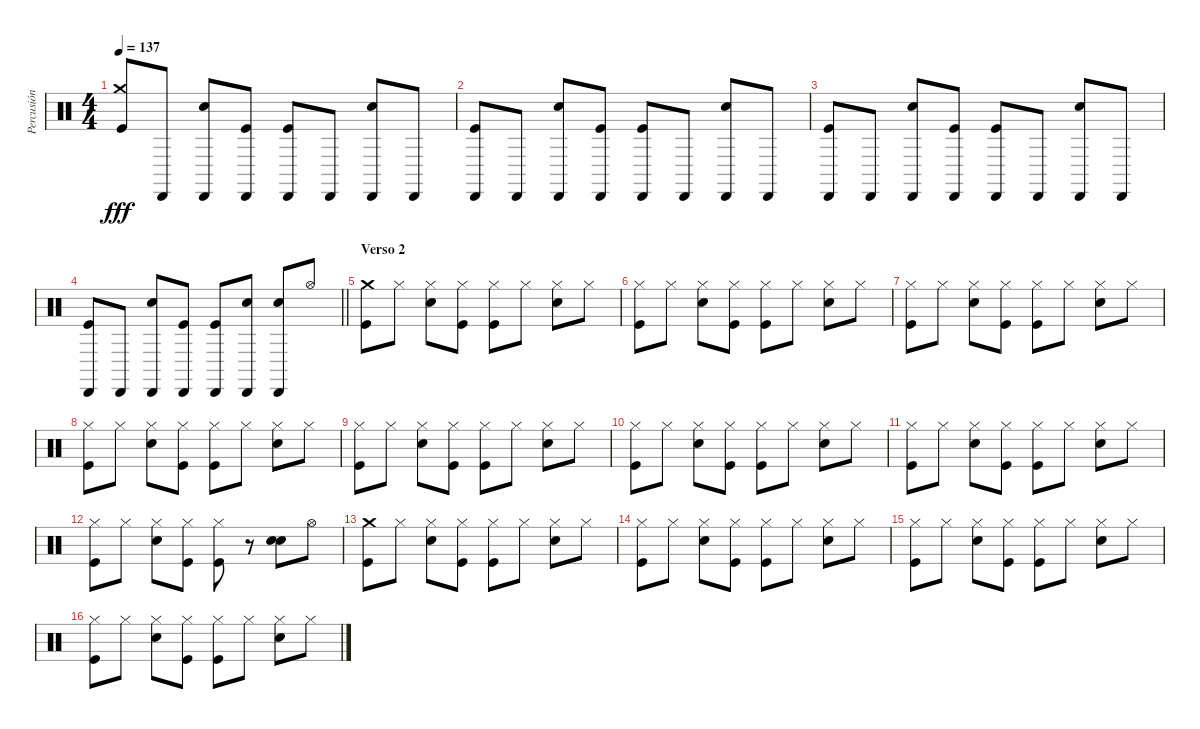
\track ("Percusión" "Percusión") {instrument percussion}
\staff {score}
\articulation defaults
\ts (4 4)
\tempo 137
\clef neutral
\ks c
("Crash medium (hit)" "Kick (hit)").8{dy fff} "Cabasa (hit)".8 ("Cabasa (hit)" "Electric Snare (hit)").8 ("Cabasa (hit)" "Kick (hit)").8 ("Cabasa (hit)" "Kick (hit)").8 "Cabasa (hit)".8 ("Cabasa (hit)" "Electric Snare (hit)").8 "Cabasa (hit)".8 |
("Cabasa (hit)" "Kick (hit)").8 "Cabasa (hit)".8 ("Cabasa (hit)" "Electric Snare (hit)").8 ("Cabasa (hit)" "Kick (hit)").8 ("Cabasa (hit)" "Kick (hit)").8 "Cabasa (hit)".8 ("Cabasa (hit)" "Electric Snare (hit)").8 "Cabasa (hit)".8 |
("Cabasa (hit)" "Kick (hit)").8 "Cabasa (hit)".8 ("Cabasa (hit)" "Electric Snare (hit)").8 ("Cabasa (hit)" "Kick (hit)").8 ("Cabasa (hit)" "Kick (hit)").8 "Cabasa (hit)".8 ("Cabasa (hit)" "Electric Snare (hit)").8 "Cabasa (hit)".8 |
\barLineRight lightlight
("Cabasa (hit)" "Kick (hit)").8 "Cabasa (hit)".8 ("Cabasa (hit)" "Electric Snare (hit)").8 ("Cabasa (hit)" "Kick (hit)").8 ("Cabasa (hit)" "Kick (hit)").8 ("Cabasa (hit)" "Electric Snare (hit)").8 ("Cabasa (hit)" "Electric Snare (hit)").8 "Hi-Hat (open)".8 |
\section ("" "Verso 2")
("Crash medium (hit)" "Kick (hit)").8 "Hi-Hat (closed)".8 ("Hi-Hat (closed)" "Electric Snare (hit)").8 ("Hi-Hat (closed)" "Kick (hit)").8 ("Hi-Hat (closed)" "Kick (hit)").8 "Hi-Hat (closed)".8 ("Hi-Hat (closed)" "Electric Snare (hit)").8 "Hi-Hat (closed)".8 |
("Hi-Hat (closed)" "Kick (hit)").8 "Hi-Hat (closed)".8 ("Hi-Hat (closed)" "Electric Snare (hit)").8 ("Hi-Hat (closed)" "Kick (hit)").8 ("Hi-Hat (closed)" "Kick (hit)").8 "Hi-Hat (closed)".8 ("Hi-Hat (closed)" "Electric Snare (hit)").8 "Hi-Hat (closed)".8 |
("Hi-Hat (closed)" "Kick (hit)").8 "Hi-Hat (closed)".8 ("Hi-Hat (closed)" "Electric Snare (hit)").8 ("Hi-Hat (closed)" "Kick (hit)").8 ("Hi-Hat (closed)" "Kick (hit)").8 "Hi-Hat (closed)".8 ("Hi-Hat (closed)" "Electric Snare (hit)").8 "Hi-Hat (closed)".8 |
("Hi-Hat (closed)" "Kick (hit)").8 "Hi-Hat (closed)".8 ("Hi-Hat (closed)" "Electric Snare (hit)").8 ("Hi-Hat (closed)" "Kick (hit)").8 ("Hi-Hat (closed)" "Kick (hit)").8 "Hi-Hat (closed)".8 ("Hi-Hat (closed)" "Electric Snare (hit)").8 "Hi-Hat (closed)".8 |
("Hi-Hat (closed)" "Kick (hit)").8 "Hi-Hat (closed)".8 ("Hi-Hat (closed)" "Electric Snare (hit)").8 ("Hi-Hat (closed)" "Kick (hit)").8 ("Hi-Hat (closed)" "Kick (hit)").8 "Hi-Hat (closed)".8 ("Hi-Hat (closed)" "Electric Snare (hit)").8 "Hi-Hat (closed)".8 |
("Hi-Hat (closed)" "Kick (hit)").8 "Hi-Hat (closed)".8 ("Hi-Hat (closed)" "Electric Snare (hit)").8 ("Hi-Hat (closed)" "Kick (hit)").8 ("Hi-Hat (closed)" "Kick (hit)").8 "Hi-Hat (closed)".8 ("Hi-Hat (closed)" "Electric Snare (hit)").8 "Hi-Hat (closed)".8 |
("Hi-Hat (closed)" "Kick (hit)").8 "Hi-Hat (closed)".8 ("Hi-Hat (closed)" "Electric Snare (hit)").8 ("Hi-Hat (closed)" "Kick (hit)").8 ("Hi-Hat (closed)" "Kick (hit)").8 "Hi-Hat (closed)".8 ("Hi-Hat (closed)" "Electric Snare (hit)").8 "Hi-Hat (closed)".8 |
("Hi-Hat (closed)" "Kick (hit)").8 "Hi-Hat (closed)".8 ("Hi-Hat (closed)" "Electric Snare (hit)").8 ("Hi-Hat (closed)" "Kick (hit)").8 ("Hi-Hat (closed)" "Kick (hit)").8 r.8 ("Electric Snare (hit)" "Electric Snare (hit)").8 "Hi-Hat (open)".8 |
("Crash medium (hit)" "Kick (hit)").8 "Hi-Hat (closed)".8 ("Hi-Hat (closed)" "Electric Snare (hit)").8 ("Hi-Hat (closed)" "Kick (hit)").8 ("Hi-Hat (closed)" "Kick (hit)").8 "Hi-Hat (closed)".8 ("Hi-Hat (closed)" "Electric Snare (hit)").8 "Hi-Hat (closed)".8 |
("Hi-Hat (closed)" "Kick (hit)").8 "Hi-Hat (closed)".8 ("Hi-Hat (closed)" "Electric Snare (hit)").8 ("Hi-Hat (closed)" "Kick (hit)").8 ("Hi-Hat (closed)" "Kick (hit)").8 "Hi-Hat (closed)".8 ("Hi-Hat (closed)" "Electric Snare (hit)").8 "Hi-Hat (closed)".8 |
("Hi-Hat (closed)" "Kick (hit)").8 "Hi-Hat (closed)".8 ("Hi-Hat (closed)" "Electric Snare (hit)").8 ("Hi-Hat (closed)" "Kick (hit)").8 ("Hi-Hat (closed)" "Kick (hit)").8 "Hi-Hat (closed)".8 ("Hi-Hat (closed)" "Electric Snare (hit)").8 "Hi-Hat (closed)".8 |
("Hi-Hat (closed)" "Kick (hit)").8 "Hi-Hat (closed)".8 ("Hi-Hat (closed)" "Electric Snare (hit)").8 ("Hi-Hat (closed)" "Kick (hit)").8 ("Hi-Hat (closed)" "Kick (hit)").8 "Hi-Hat (closed)".8 ("Hi-Hat (closed)" "Electric Snare (hit)").8 "Hi-Hat (closed)".8
